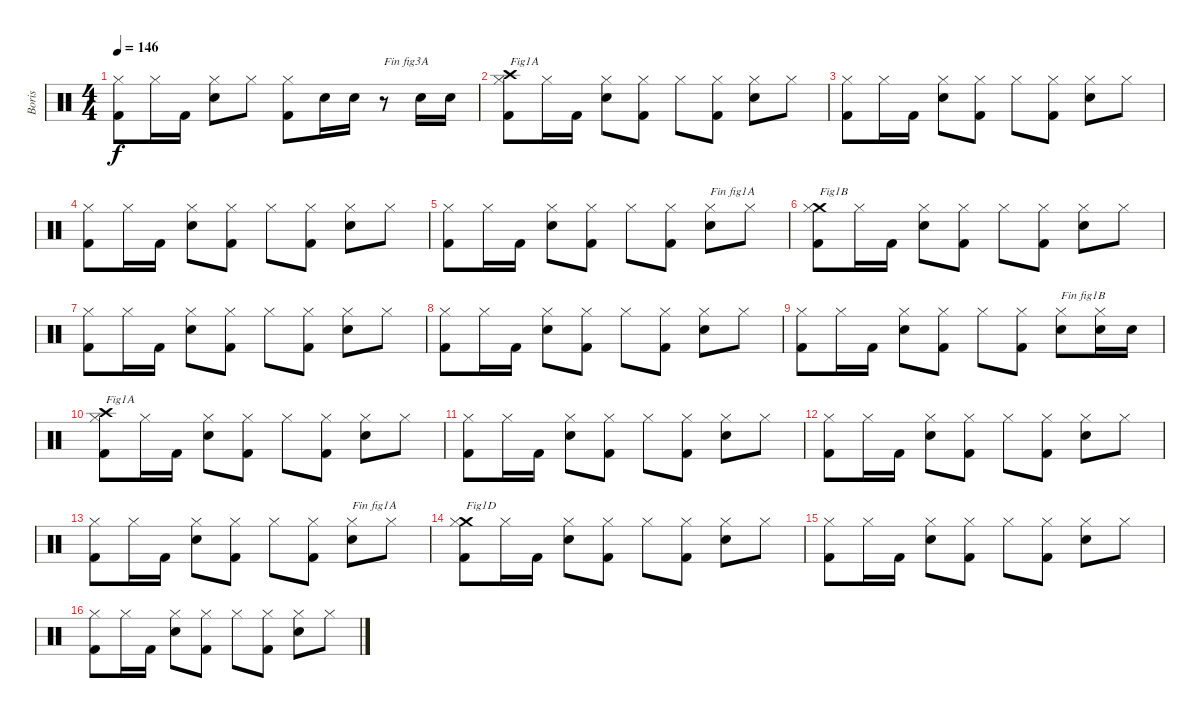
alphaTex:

\track ("Boris" "Boris") {instrument percussion}
\staff {score}
\articulation defaults
\ts (4 4)
\tempo 146
\clef neutral
\ks c
("Kick (hit) 2" "Hi-Hat (closed)").8{dy f} "Hi-Hat (closed)".16 "Kick (hit) 2".16 ("Electric Snare (hit)" "Hi-Hat (closed)").8 "Hi-Hat (closed)".8 ("Kick (hit) 2" "Hi-Hat (closed)").8 "Electric Snare (hit)".16 "Electric Snare (hit)".16 r.8{txt "Fin fig3A"} "Electric Snare (hit)".16 "Electric Snare (hit)".16 |
("Kick (hit) 2" "Crash high (hit)" "Hi-Hat (closed)").8{txt "Fig1A"} "Hi-Hat (closed)".16 "Kick (hit) 2".16 ("Electric Snare (hit)" "Hi-Hat (closed)").8 ("Kick (hit) 2" "Hi-Hat (closed)").8 "Hi-Hat (closed)".8 ("Kick (hit) 2" "Hi-Hat (closed)").8 ("Electric Snare (hit)" "Hi-Hat (closed)").8 "Hi-Hat (closed)".8 |
("Kick (hit) 2" "Hi-Hat (closed)").8 "Hi-Hat (closed)".16 "Kick (hit) 2".16 ("Electric Snare (hit)" "Hi-Hat (closed)").8 ("Kick (hit) 2" "Hi-Hat (closed)").8 "Hi-Hat (closed)".8 ("Kick (hit) 2" "Hi-Hat (closed)").8 ("Electric Snare (hit)" "Hi-Hat (closed)").8 "Hi-Hat (closed)".8 |
("Kick (hit) 2" "Hi-Hat (closed)").8 "Hi-Hat (closed)".16 "Kick (hit) 2".16 ("Electric Snare (hit)" "Hi-Hat (closed)").8 ("Kick (hit) 2" "Hi-Hat (closed)").8 "Hi-Hat (closed)".8 ("Kick (hit) 2" "Hi-Hat (closed)").8 ("Electric Snare (hit)" "Hi-Hat (closed)").8 "Hi-Hat (closed)".8 |
("Kick (hit) 2" "Hi-Hat (closed)").8 "Hi-Hat (closed)".16 "Kick (hit) 2".16 ("Electric Snare (hit)" "Hi-Hat (closed)").8 ("Kick (hit) 2" "Hi-Hat (closed)").8 "Hi-Hat (closed)".8 ("Kick (hit) 2" "Hi-Hat (closed)").8 ("Electric Snare (hit)" "Hi-Hat (closed)").8{txt "Fin fig1A"} "Hi-Hat (closed)".8 |
("Kick (hit) 2" "Crash medium (hit)" "Hi-Hat (closed)").8{txt "Fig1B"} "Hi-Hat (closed)".16 "Kick (hit) 2".16 ("Electric Snare (hit)" "Hi-Hat (closed)").8 ("Kick (hit) 2" "Hi-Hat (closed)").8 "Hi-Hat (closed)".8 ("Kick (hit) 2" "Hi-Hat (closed)").8 ("Electric Snare (hit)" "Hi-Hat (closed)").8 "Hi-Hat (closed)".8 |
("Kick (hit) 2" "Hi-Hat (closed)").8 "Hi-Hat (closed)".16 "Kick (hit) 2".16 ("Electric Snare (hit)" "Hi-Hat (closed)").8 ("Kick (hit) 2" "Hi-Hat (closed)").8 "Hi-Hat (closed)".8 ("Kick (hit) 2" "Hi-Hat (closed)").8 ("Electric Snare (hit)" "Hi-Hat (closed)").8 "Hi-Hat (closed)".8 |
("Kick (hit) 2" "Hi-Hat (closed)").8 "Hi-Hat (closed)".16 "Kick (hit) 2".16 ("Electric Snare (hit)" "Hi-Hat (closed)").8 ("Kick (hit) 2" "Hi-Hat (closed)").8 "Hi-Hat (closed)".8 ("Kick (hit) 2" "Hi-Hat (closed)").8 ("Electric Snare (hit)" "Hi-Hat (closed)").8 "Hi-Hat (closed)".8 |
("Kick (hit) 2" "Hi-Hat (closed)").8 "Hi-Hat (closed)".16 "Kick (hit) 2".16 ("Electric Snare (hit)" "Hi-Hat (closed)").8 ("Kick (hit) 2" "Hi-Hat (closed)").8 "Hi-Hat (closed)".8 ("Kick (hit) 2" "Hi-Hat (closed)").8 ("Electric Snare (hit)" "Hi-Hat (closed)").8{txt "Fin fig1B"} ("Electric Snare (hit)" "Hi-Hat (closed)").16 "Electric Snare (hit)".16 |
("Kick (hit) 2" "Crash high (hit)" "Hi-Hat (closed)").8{txt "Fig1A"} "Hi-Hat (closed)".16 "Kick (hit) 2".16 ("Electric Snare (hit)" "Hi-Hat (closed)").8 ("Kick (hit) 2" "Hi-Hat (closed)").8 "Hi-Hat (closed)".8 ("Kick (hit) 2" "Hi-Hat (closed)").8 ("Electric Snare (hit)" "Hi-Hat (closed)").8 "Hi-Hat (closed)".8 |
("Kick (hit) 2" "Hi-Hat (closed)").8 "Hi-Hat (closed)".16 "Kick (hit) 2".16 ("Electric Snare (hit)" "Hi-Hat (closed)").8 ("Kick (hit) 2" "Hi-Hat (closed)").8 "Hi-Hat (closed)".8 ("Kick (hit) 2" "Hi-Hat (closed)").8 ("Electric Snare (hit)" "Hi-Hat (closed)").8 "Hi-Hat (closed)".8 |
("Kick (hit) 2" "Hi-Hat (closed)").8 "Hi-Hat (closed)".16 "Kick (hit) 2".16 ("Electric Snare (hit)" "Hi-Hat (closed)").8 ("Kick (hit) 2" "Hi-Hat (closed)").8 "Hi-Hat (closed)".8 ("Kick (hit) 2" "Hi-Hat (closed)").8 ("Electric Snare (hit)" "Hi-Hat (closed)").8 "Hi-Hat (closed)".8 |
("Kick (hit) 2" "Hi-Hat (closed)").8 "Hi-Hat (closed)".16 "Kick (hit) 2".16 ("Electric Snare (hit)" "Hi-Hat (closed)").8 ("Kick (hit) 2" "Hi-Hat (closed)").8 "Hi-Hat (closed)".8 ("Kick (hit) 2" "Hi-Hat (closed)").8 ("Electric Snare (hit)" "Hi-Hat (closed)").8{txt "Fin fig1A"} "Hi-Hat (closed)".8 |
("Kick (hit) 2" "Crash medium (hit)" "Hi-Hat (closed)").8{txt "Fig1D"} "Hi-Hat (closed)".16 "Kick (hit) 2".16 ("Electric Snare (hit)" "Hi-Hat (closed)").8 ("Kick (hit) 2" "Hi-Hat (closed)").8 "Hi-Hat (closed)".8 ("Kick (hit) 2" "Hi-Hat (closed)").8 ("Electric Snare (hit)" "Hi-Hat (closed)").8 "Hi-Hat (closed)".8 |
("Kick (hit) 2" "Hi-Hat (closed)").8 "Hi-Hat (closed)".16 "Kick (hit) 2".16 ("Electric Snare (hit)" "Hi-Hat (closed)").8 ("Kick (hit) 2" "Hi-Hat (closed)").8 "Hi-Hat (closed)".8 ("Kick (hit) 2" "Hi-Hat (closed)").8 ("Electric Snare (hit)" "Hi-Hat (closed)").8 "Hi-Hat (closed)".8 |
("Kick (hit) 2" "Hi-Hat (closed)").8 "Hi-Hat (closed)".16 "Kick (hit) 2".16 ("Electric Snare (hit)" "Hi-Hat (closed)").8 ("Kick (hit) 2" "Hi-Hat (closed)").8 "Hi-Hat (closed)".8 ("Kick (hit) 2" "Hi-Hat (closed)").8 ("Electric Snare (hit)" "Hi-Hat (closed)").8 "Hi-Hat (closed)".8
